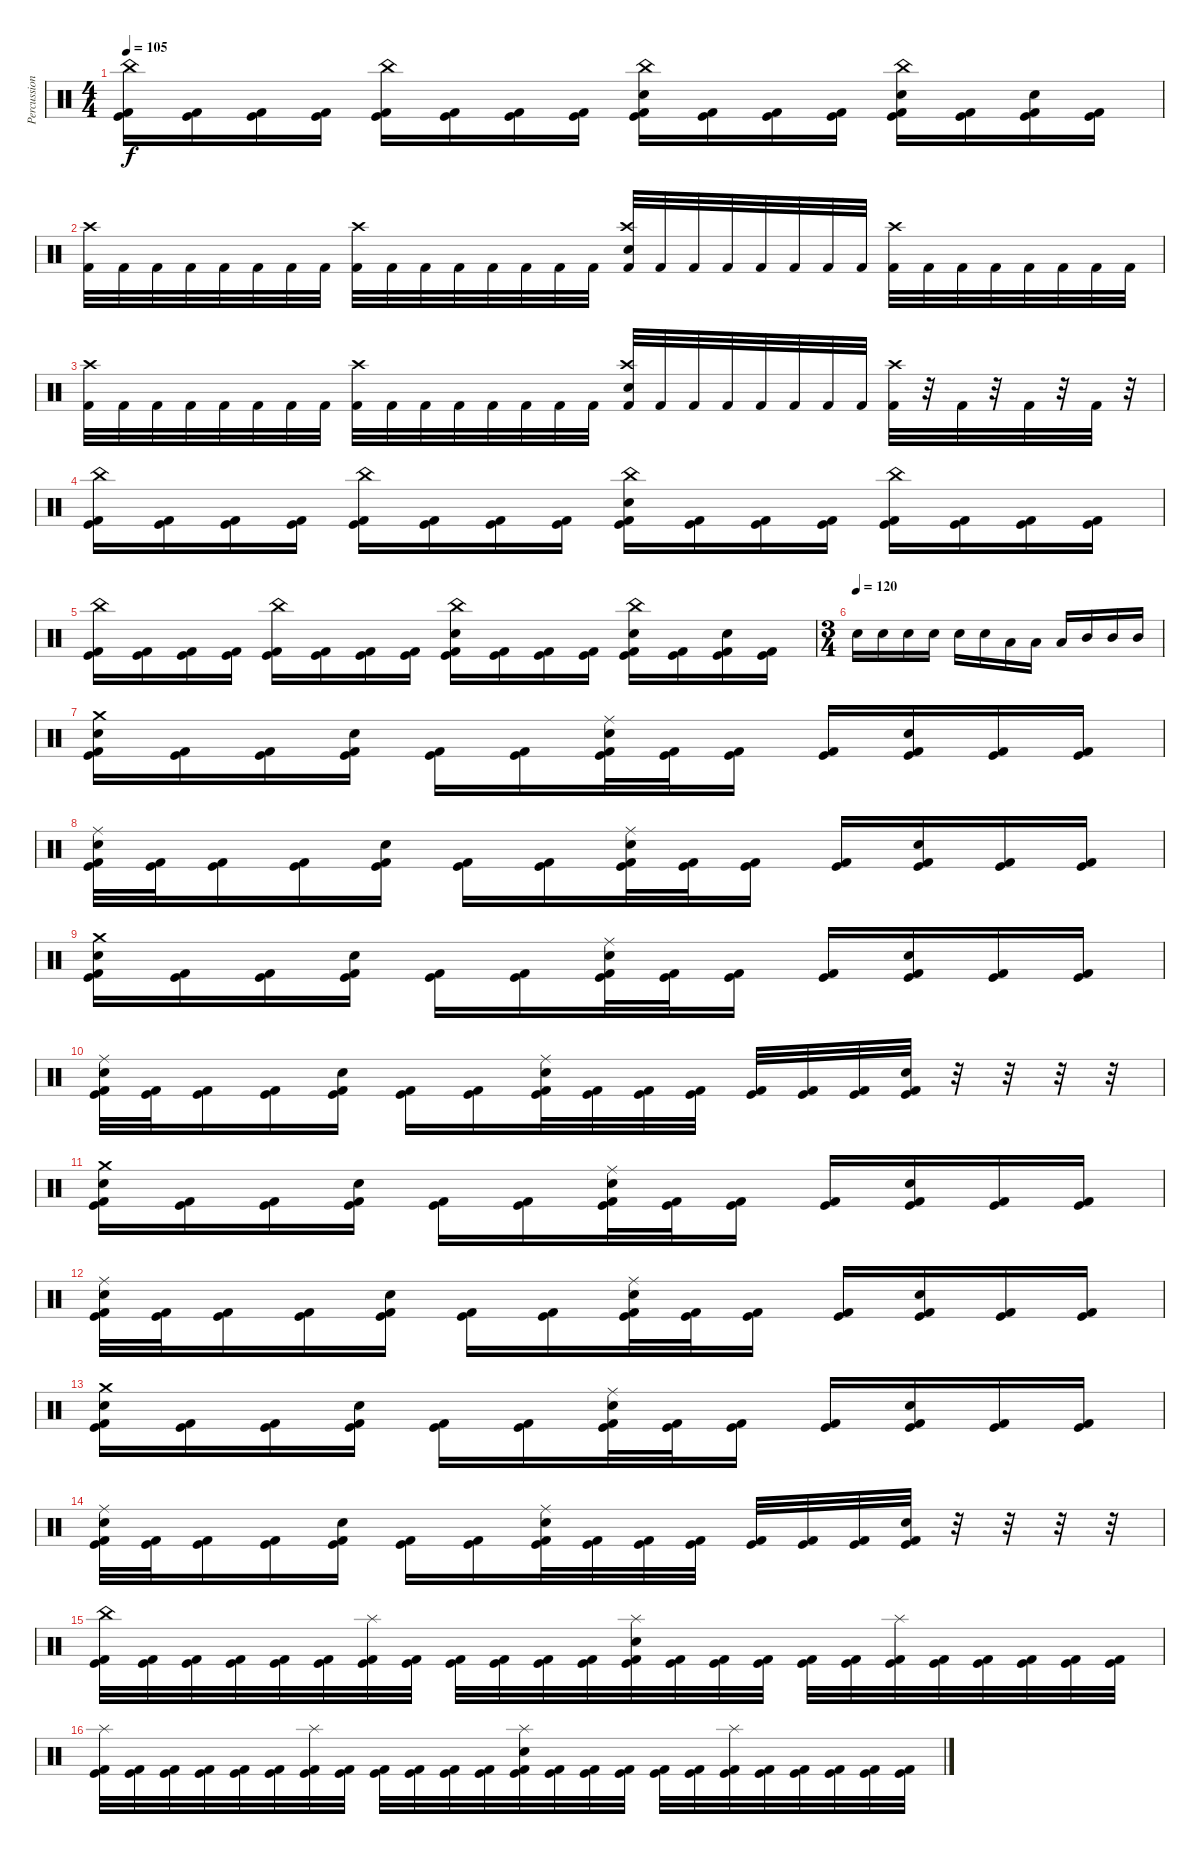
\track ("Percussion" "Percussion") {instrument percussion}
\staff {score}
\articulation defaults
\ts (4 4)
\tempo 105
\clef neutral
\ks c
("China (hit)" "Kick (hit)" "Kick (hit) 2").16{dy f} ("Kick (hit)" "Kick (hit) 2").16 ("Kick (hit)" "Kick (hit) 2").16 ("Kick (hit)" "Kick (hit) 2").16 ("China (hit)" "Kick (hit)" "Kick (hit) 2").16 ("Kick (hit)" "Kick (hit) 2").16 ("Kick (hit)" "Kick (hit) 2").16 ("Kick (hit)" "Kick (hit) 2").16 ("Snare (hit) 2" "China (hit)" "Kick (hit)" "Kick (hit) 2").16 ("Kick (hit)" "Kick (hit) 2").16 ("Kick (hit)" "Kick (hit) 2").16 ("Kick (hit)" "Kick (hit) 2").16 ("China (hit)" "Snare (hit) 2" "Kick (hit)" "Kick (hit) 2").16 ("Kick (hit)" "Kick (hit) 2").16 ("Snare (hit) 2" "Kick (hit)" "Kick (hit) 2").16 ("Kick (hit)" "Kick (hit) 2").16 |
("Crash high (hit)" "Kick (hit) 2").32 "Kick (hit) 2".32 "Kick (hit) 2".32 "Kick (hit) 2".32 "Kick (hit) 2".32 "Kick (hit) 2".32 "Kick (hit) 2".32 "Kick (hit) 2".32 ("Crash high (hit)" "Kick (hit) 2").32 "Kick (hit) 2".32 "Kick (hit) 2".32 "Kick (hit) 2".32 "Kick (hit) 2".32 "Kick (hit) 2".32 "Kick (hit) 2".32 "Kick (hit) 2".32 ("Crash high (hit)" "Electric Snare (hit)" "Kick (hit) 2").32 "Kick (hit) 2".32 "Kick (hit) 2".32 "Kick (hit) 2".32 "Kick (hit) 2".32 "Kick (hit) 2".32 "Kick (hit) 2".32 "Kick (hit) 2".32 ("Crash high (hit)" "Kick (hit) 2").32 "Kick (hit) 2".32 "Kick (hit) 2".32 "Kick (hit) 2".32 "Kick (hit) 2".32 "Kick (hit) 2".32 "Kick (hit) 2".32 "Kick (hit) 2".32 |
("Crash high (hit)" "Kick (hit) 2").32 "Kick (hit) 2".32 "Kick (hit) 2".32 "Kick (hit) 2".32 "Kick (hit) 2".32 "Kick (hit) 2".32 "Kick (hit) 2".32 "Kick (hit) 2".32 ("Crash high (hit)" "Kick (hit) 2").32 "Kick (hit) 2".32 "Kick (hit) 2".32 "Kick (hit) 2".32 "Kick (hit) 2".32 "Kick (hit) 2".32 "Kick (hit) 2".32 "Kick (hit) 2".32 ("Crash high (hit)" "Electric Snare (hit)" "Kick (hit) 2").32 "Kick (hit) 2".32 "Kick (hit) 2".32 "Kick (hit) 2".32 "Kick (hit) 2".32 "Kick (hit) 2".32 "Kick (hit) 2".32 "Kick (hit) 2".32 ("Crash high (hit)" "Kick (hit) 2").32 r.32 "Kick (hit) 2".32 r.32 "Kick (hit) 2".32 r.32 "Kick (hit) 2".32 r.32 |
("China (hit)" "Kick (hit)" "Kick (hit) 2").16 ("Kick (hit)" "Kick (hit) 2").16 ("Kick (hit)" "Kick (hit) 2").16 ("Kick (hit)" "Kick (hit) 2").16 ("China (hit)" "Kick (hit)" "Kick (hit) 2").16 ("Kick (hit)" "Kick (hit) 2").16 ("Kick (hit)" "Kick (hit) 2").16 ("Kick (hit)" "Kick (hit) 2").16 ("Snare (hit) 2" "China (hit)" "Kick (hit)" "Kick (hit) 2").16 ("Kick (hit)" "Kick (hit) 2").16 ("Kick (hit)" "Kick (hit) 2").16 ("Kick (hit)" "Kick (hit) 2").16 ("China (hit)" "Kick (hit)" "Kick (hit) 2").16 ("Kick (hit)" "Kick (hit) 2").16 ("Kick (hit)" "Kick (hit) 2").16 ("Kick (hit)" "Kick (hit) 2").16 |
("China (hit)" "Kick (hit)" "Kick (hit) 2").16 ("Kick (hit)" "Kick (hit) 2").16 ("Kick (hit)" "Kick (hit) 2").16 ("Kick (hit)" "Kick (hit) 2").16 ("China (hit)" "Kick (hit)" "Kick (hit) 2").16 ("Kick (hit)" "Kick (hit) 2").16 ("Kick (hit)" "Kick (hit) 2").16 ("Kick (hit)" "Kick (hit) 2").16 ("Snare (hit) 2" "China (hit)" "Kick (hit)" "Kick (hit) 2").16 ("Kick (hit)" "Kick (hit) 2").16 ("Kick (hit)" "Kick (hit) 2").16 ("Kick (hit)" "Kick (hit) 2").16 ("China (hit)" "Snare (hit) 2" "Kick (hit)" "Kick (hit) 2").16 ("Kick (hit)" "Kick (hit) 2").16 ("Snare (hit) 2" "Kick (hit)" "Kick (hit) 2").16 ("Kick (hit)" "Kick (hit) 2").16 |
\ts (3 4)
\tempo (120)
"Electric Snare (hit)".16 "Electric Snare (hit)".16 "Electric Snare (hit)".16 "Electric Snare (hit)".16 "Electric Snare (hit)".16 "Electric Snare (hit)".16 "Low Tom (hit)".16 "Low Tom (hit)".16 "Low Tom (hit)".16 "Mid Tom (hit)".16 "Mid Tom (hit)".16 "Mid Tom (hit)".16 |
("Crash medium (hit)" "Electric Snare (hit)" "Kick (hit)" "Kick (hit) 2").16 ("Kick (hit)" "Kick (hit) 2").16 ("Kick (hit)" "Kick (hit) 2").16 ("Electric Snare (hit)" "Kick (hit)" "Kick (hit) 2").16 ("Kick (hit)" "Kick (hit) 2").16 ("Kick (hit)" "Kick (hit) 2").16 ("Ride (middle)" "Electric Snare (hit)" "Kick (hit)" "Kick (hit) 2").32 ("Kick (hit)" "Kick (hit) 2").32 ("Kick (hit)" "Kick (hit) 2").16 ("Kick (hit)" "Kick (hit) 2").16 ("Electric Snare (hit)" "Kick (hit)" "Kick (hit) 2").16 ("Kick (hit)" "Kick (hit) 2").16 ("Kick (hit)" "Kick (hit) 2").16 |
("Ride (middle)" "Electric Snare (hit)" "Kick (hit)" "Kick (hit) 2").32 ("Kick (hit)" "Kick (hit) 2").32 ("Kick (hit)" "Kick (hit) 2").16 ("Kick (hit)" "Kick (hit) 2").16 ("Electric Snare (hit)" "Kick (hit)" "Kick (hit) 2").16 ("Kick (hit)" "Kick (hit) 2").16 ("Kick (hit)" "Kick (hit) 2").16 ("Ride (middle)" "Electric Snare (hit)" "Kick (hit)" "Kick (hit) 2").32 ("Kick (hit)" "Kick (hit) 2").32 ("Kick (hit)" "Kick (hit) 2").16 ("Kick (hit)" "Kick (hit) 2").16 ("Electric Snare (hit)" "Kick (hit)" "Kick (hit) 2").16 ("Kick (hit)" "Kick (hit) 2").16 ("Kick (hit)" "Kick (hit) 2").16 |
("Crash medium (hit)" "Electric Snare (hit)" "Kick (hit)" "Kick (hit) 2").16 ("Kick (hit)" "Kick (hit) 2").16 ("Kick (hit)" "Kick (hit) 2").16 ("Electric Snare (hit)" "Kick (hit)" "Kick (hit) 2").16 ("Kick (hit)" "Kick (hit) 2").16 ("Kick (hit)" "Kick (hit) 2").16 ("Ride (middle)" "Electric Snare (hit)" "Kick (hit)" "Kick (hit) 2").32 ("Kick (hit)" "Kick (hit) 2").32 ("Kick (hit)" "Kick (hit) 2").16 ("Kick (hit)" "Kick (hit) 2").16 ("Electric Snare (hit)" "Kick (hit)" "Kick (hit) 2").16 ("Kick (hit)" "Kick (hit) 2").16 ("Kick (hit)" "Kick (hit) 2").16 |
("Ride (middle)" "Electric Snare (hit)" "Kick (hit)" "Kick (hit) 2").32 ("Kick (hit)" "Kick (hit) 2").32 ("Kick (hit)" "Kick (hit) 2").16 ("Kick (hit)" "Kick (hit) 2").16 ("Electric Snare (hit)" "Kick (hit)" "Kick (hit) 2").16 ("Kick (hit)" "Kick (hit) 2").16 ("Kick (hit)" "Kick (hit) 2").16 ("Ride (middle)" "Electric Snare (hit)" "Kick (hit)" "Kick (hit) 2").32 ("Kick (hit)" "Kick (hit) 2").32 ("Kick (hit)" "Kick (hit) 2").32 ("Kick (hit)" "Kick (hit) 2").32 ("Kick (hit)" "Kick (hit) 2").32 ("Kick (hit)" "Kick (hit) 2").32 ("Kick (hit)" "Kick (hit) 2").32 ("Electric Snare (hit)" "Kick (hit)" "Kick (hit) 2").32 r.32 r.32 r.32 r.32 |
("Crash medium (hit)" "Electric Snare (hit)" "Kick (hit)" "Kick (hit) 2").16 ("Kick (hit)" "Kick (hit) 2").16 ("Kick (hit)" "Kick (hit) 2").16 ("Electric Snare (hit)" "Kick (hit)" "Kick (hit) 2").16 ("Kick (hit)" "Kick (hit) 2").16 ("Kick (hit)" "Kick (hit) 2").16 ("Ride (middle)" "Electric Snare (hit)" "Kick (hit)" "Kick (hit) 2").32 ("Kick (hit)" "Kick (hit) 2").32 ("Kick (hit)" "Kick (hit) 2").16 ("Kick (hit)" "Kick (hit) 2").16 ("Electric Snare (hit)" "Kick (hit)" "Kick (hit) 2").16 ("Kick (hit)" "Kick (hit) 2").16 ("Kick (hit)" "Kick (hit) 2").16 |
("Ride (middle)" "Electric Snare (hit)" "Kick (hit)" "Kick (hit) 2").32 ("Kick (hit)" "Kick (hit) 2").32 ("Kick (hit)" "Kick (hit) 2").16 ("Kick (hit)" "Kick (hit) 2").16 ("Electric Snare (hit)" "Kick (hit)" "Kick (hit) 2").16 ("Kick (hit)" "Kick (hit) 2").16 ("Kick (hit)" "Kick (hit) 2").16 ("Ride (middle)" "Electric Snare (hit)" "Kick (hit)" "Kick (hit) 2").32 ("Kick (hit)" "Kick (hit) 2").32 ("Kick (hit)" "Kick (hit) 2").16 ("Kick (hit)" "Kick (hit) 2").16 ("Electric Snare (hit)" "Kick (hit)" "Kick (hit) 2").16 ("Kick (hit)" "Kick (hit) 2").16 ("Kick (hit)" "Kick (hit) 2").16 |
("Crash medium (hit)" "Electric Snare (hit)" "Kick (hit)" "Kick (hit) 2").16 ("Kick (hit)" "Kick (hit) 2").16 ("Kick (hit)" "Kick (hit) 2").16 ("Electric Snare (hit)" "Kick (hit)" "Kick (hit) 2").16 ("Kick (hit)" "Kick (hit) 2").16 ("Kick (hit)" "Kick (hit) 2").16 ("Ride (middle)" "Electric Snare (hit)" "Kick (hit)" "Kick (hit) 2").32 ("Kick (hit)" "Kick (hit) 2").32 ("Kick (hit)" "Kick (hit) 2").16 ("Kick (hit)" "Kick (hit) 2").16 ("Electric Snare (hit)" "Kick (hit)" "Kick (hit) 2").16 ("Kick (hit)" "Kick (hit) 2").16 ("Kick (hit)" "Kick (hit) 2").16 |
("Ride (middle)" "Electric Snare (hit)" "Kick (hit)" "Kick (hit) 2").32 ("Kick (hit)" "Kick (hit) 2").32 ("Kick (hit)" "Kick (hit) 2").16 ("Kick (hit)" "Kick (hit) 2").16 ("Electric Snare (hit)" "Kick (hit)" "Kick (hit) 2").16 ("Kick (hit)" "Kick (hit) 2").16 ("Kick (hit)" "Kick (hit) 2").16 ("Ride (middle)" "Electric Snare (hit)" "Kick (hit)" "Kick (hit) 2").32 ("Kick (hit)" "Kick (hit) 2").32 ("Kick (hit)" "Kick (hit) 2").32 ("Kick (hit)" "Kick (hit) 2").32 ("Kick (hit)" "Kick (hit) 2").32 ("Kick (hit)" "Kick (hit) 2").32 ("Kick (hit)" "Kick (hit) 2").32 ("Electric Snare (hit)" "Kick (hit)" "Kick (hit) 2").32 r.32 r.32 r.32 r.32 |
("China (hit)" "Kick (hit)" "Kick (hit) 2").32 ("Kick (hit)" "Kick (hit) 2").32 ("Kick (hit)" "Kick (hit) 2").32 ("Kick (hit)" "Kick (hit) 2").32 ("Kick (hit)" "Kick (hit) 2").32 ("Kick (hit)" "Kick (hit) 2").32 ("Splash (hit)" "Kick (hit)" "Kick (hit) 2").32 ("Kick (hit)" "Kick (hit) 2").32 ("Kick (hit)" "Kick (hit) 2").32 ("Kick (hit)" "Kick (hit) 2").32 ("Kick (hit)" "Kick (hit) 2").32 ("Kick (hit)" "Kick (hit) 2").32 ("Splash (hit)" "Electric Snare (hit)" "Kick (hit)" "Kick (hit) 2").32 ("Kick (hit)" "Kick (hit) 2").32 ("Kick (hit)" "Kick (hit) 2").32 ("Kick (hit)" "Kick (hit) 2").32 ("Kick (hit)" "Kick (hit) 2").32 ("Kick (hit)" "Kick (hit) 2").32 ("Splash (hit)" "Kick (hit)" "Kick (hit) 2").32 ("Kick (hit)" "Kick (hit) 2").32 ("Kick (hit)" "Kick (hit) 2").32 ("Kick (hit)" "Kick (hit) 2").32 ("Kick (hit)" "Kick (hit) 2").32 ("Kick (hit)" "Kick (hit) 2").32 |
("Splash (hit)" "Kick (hit)" "Kick (hit) 2").32 ("Kick (hit)" "Kick (hit) 2").32 ("Kick (hit)" "Kick (hit) 2").32 ("Kick (hit)" "Kick (hit) 2").32 ("Kick (hit)" "Kick (hit) 2").32 ("Kick (hit)" "Kick (hit) 2").32 ("Splash (hit)" "Kick (hit)" "Kick (hit) 2").32 ("Kick (hit)" "Kick (hit) 2").32 ("Kick (hit)" "Kick (hit) 2").32 ("Kick (hit)" "Kick (hit) 2").32 ("Kick (hit)" "Kick (hit) 2").32 ("Kick (hit)" "Kick (hit) 2").32 ("Splash (hit)" "Electric Snare (hit)" "Kick (hit)" "Kick (hit) 2").32 ("Kick (hit)" "Kick (hit) 2").32 ("Kick (hit)" "Kick (hit) 2").32 ("Kick (hit)" "Kick (hit) 2").32 ("Kick (hit)" "Kick (hit) 2").32 ("Kick (hit)" "Kick (hit) 2").32 ("Splash (hit)" "Kick (hit)" "Kick (hit) 2").32 ("Kick (hit)" "Kick (hit) 2").32 ("Kick (hit)" "Kick (hit) 2").32 ("Kick (hit)" "Kick (hit) 2").32 ("Kick (hit)" "Kick (hit) 2").32 ("Kick (hit)" "Kick (hit) 2").32
